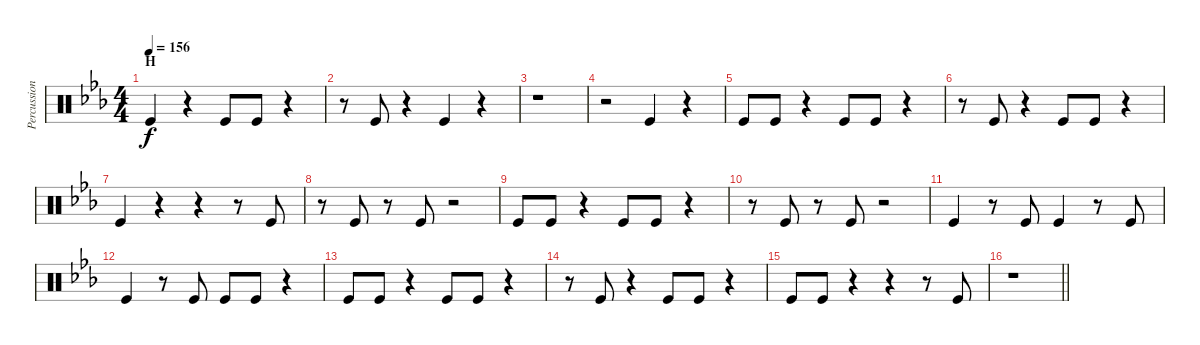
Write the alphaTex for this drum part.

\track ("Percussion foot" "Percussion") {instrument percussion}
\staff {score}
\articulation defaults
\ts (4 4)
\section ("" "H")
\tempo 156
\clef neutral
\ks eb "Kick (hit)".4{dy f}
r.4 "Kick (hit)".8 "Kick (hit)".8 r.4 |
r.8 "Kick (hit)".8 r.4 "Kick (hit)".4 r.4 |
r.1 |
r.2 "Kick (hit)".4 r.4 |
"Kick (hit)".8 "Kick (hit)".8 r.4 "Kick (hit)".8 "Kick (hit)".8 r.4 |
r.8 "Kick (hit)".8 r.4 "Kick (hit)".8 "Kick (hit)".8 r.4 |
"Kick (hit)".4 r.4 r.4 r.8 "Kick (hit)".8 |
r.8 "Kick (hit)".8 r.8 "Kick (hit)".8 r.2 |
"Kick (hit)".8 "Kick (hit)".8 r.4 "Kick (hit)".8 "Kick (hit)".8 r.4 |
r.8 "Kick (hit)".8 r.8 "Kick (hit)".8 r.2 |
"Kick (hit)".4 r.8 "Kick (hit)".8 "Kick (hit)".4 r.8 "Kick (hit)".8 |
"Kick (hit)".4 r.8 "Kick (hit)".8 "Kick (hit)".8 "Kick (hit)".8 r.4 |
"Kick (hit)".8 "Kick (hit)".8 r.4 "Kick (hit)".8 "Kick (hit)".8 r.4 |
r.8 "Kick (hit)".8 r.4 "Kick (hit)".8 "Kick (hit)".8 r.4 |
"Kick (hit)".8 "Kick (hit)".8 r.4 r.4 r.8 "Kick (hit)".8 |
\barLineRight lightlight
r.1
